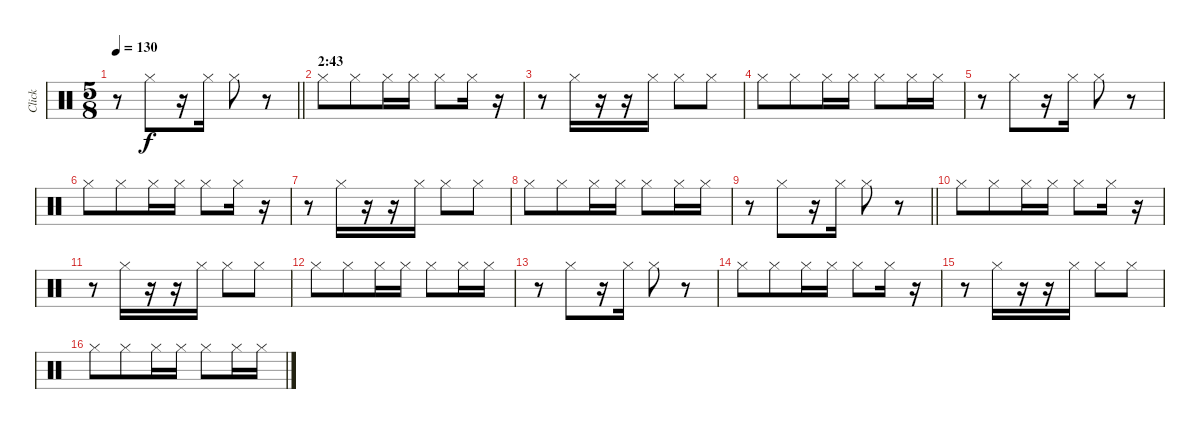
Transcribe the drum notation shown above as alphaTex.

\track ("Click" "Click") {instrument percussion}
\staff {score}
\articulation defaults
\ts (5 8)
\tempo 130
\clef neutral
\barLineRight lightlight
\ks c
r.8{dy f} "Hi-Hat (closed)".8 r.16 "Hi-Hat (closed)".16 "Hi-Hat (closed)".8 r.8 |
\section ("" "2:43")
"Hi-Hat (closed)".8 "Hi-Hat (closed)".8 "Hi-Hat (closed)".16 "Hi-Hat (closed)".16 "Hi-Hat (closed)".8 "Hi-Hat (closed)".16 r.16 |
r.8 "Hi-Hat (closed)".16 r.16 r.16 "Hi-Hat (closed)".16 "Hi-Hat (closed)".8 "Hi-Hat (closed)".8 |
"Hi-Hat (closed)".8 "Hi-Hat (closed)".8 "Hi-Hat (closed)".16 "Hi-Hat (closed)".16 "Hi-Hat (closed)".8 "Hi-Hat (closed)".16 "Hi-Hat (closed)".16 |
r.8 "Hi-Hat (closed)".8 r.16 "Hi-Hat (closed)".16 "Hi-Hat (closed)".8 r.8 |
"Hi-Hat (closed)".8 "Hi-Hat (closed)".8 "Hi-Hat (closed)".16 "Hi-Hat (closed)".16 "Hi-Hat (closed)".8 "Hi-Hat (closed)".16 r.16 |
r.8 "Hi-Hat (closed)".16 r.16 r.16 "Hi-Hat (closed)".16 "Hi-Hat (closed)".8 "Hi-Hat (closed)".8 |
"Hi-Hat (closed)".8 "Hi-Hat (closed)".8 "Hi-Hat (closed)".16 "Hi-Hat (closed)".16 "Hi-Hat (closed)".8 "Hi-Hat (closed)".16 "Hi-Hat (closed)".16 |
\barLineRight lightlight
r.8 "Hi-Hat (closed)".8 r.16 "Hi-Hat (closed)".16 "Hi-Hat (closed)".8 r.8 |
"Hi-Hat (closed)".8 "Hi-Hat (closed)".8 "Hi-Hat (closed)".16 "Hi-Hat (closed)".16 "Hi-Hat (closed)".8 "Hi-Hat (closed)".16 r.16 |
r.8 "Hi-Hat (closed)".16 r.16 r.16 "Hi-Hat (closed)".16 "Hi-Hat (closed)".8 "Hi-Hat (closed)".8 |
"Hi-Hat (closed)".8 "Hi-Hat (closed)".8 "Hi-Hat (closed)".16 "Hi-Hat (closed)".16 "Hi-Hat (closed)".8 "Hi-Hat (closed)".16 "Hi-Hat (closed)".16 |
r.8 "Hi-Hat (closed)".8 r.16 "Hi-Hat (closed)".16 "Hi-Hat (closed)".8 r.8 |
"Hi-Hat (closed)".8 "Hi-Hat (closed)".8 "Hi-Hat (closed)".16 "Hi-Hat (closed)".16 "Hi-Hat (closed)".8 "Hi-Hat (closed)".16 r.16 |
r.8 "Hi-Hat (closed)".16 r.16 r.16 "Hi-Hat (closed)".16 "Hi-Hat (closed)".8 "Hi-Hat (closed)".8 |
"Hi-Hat (closed)".8 "Hi-Hat (closed)".8 "Hi-Hat (closed)".16 "Hi-Hat (closed)".16 "Hi-Hat (closed)".8 "Hi-Hat (closed)".16 "Hi-Hat (closed)".16
